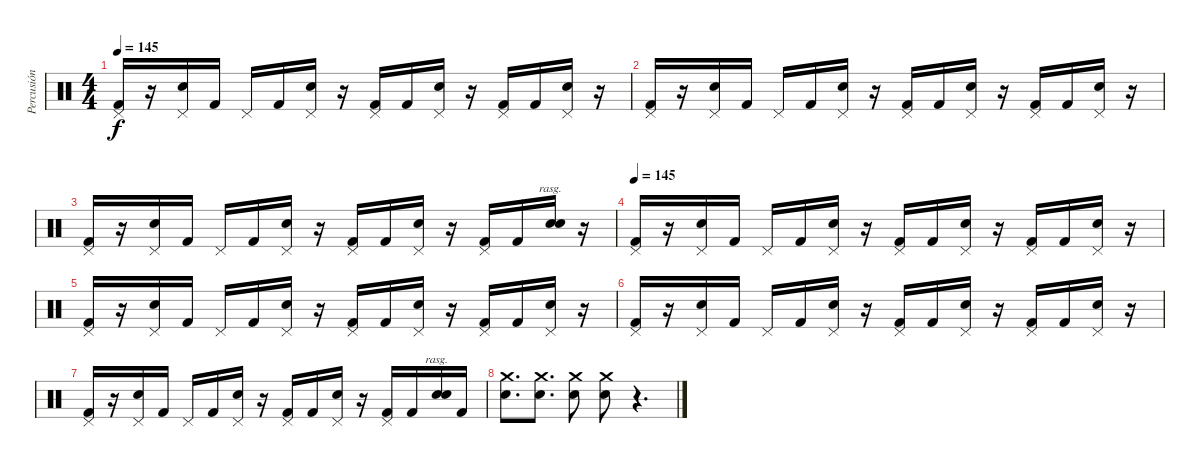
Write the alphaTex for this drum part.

\track ("Percusión" "Percusión") {instrument percussion}
\staff {score}
\articulation defaults
\ts (4 4)
\tempo 145
\clef neutral
\ks c
("Pedal Hi-Hat (hit)" "Kick (hit) 2").16{dy f} r.16 ("Pedal Hi-Hat (hit)" "Electric Snare (hit)").16 "Kick (hit) 2".16 "Pedal Hi-Hat (hit)".16 "Kick (hit) 2".16 ("Pedal Hi-Hat (hit)" "Electric Snare (hit)").16 r.16 ("Pedal Hi-Hat (hit)" "Kick (hit) 2").16 "Kick (hit) 2".16 ("Pedal Hi-Hat (hit)" "Electric Snare (hit)").16 r.16 ("Pedal Hi-Hat (hit)" "Kick (hit) 2").16 "Kick (hit) 2".16 ("Pedal Hi-Hat (hit)" "Electric Snare (hit)").16 r.16 |
("Pedal Hi-Hat (hit)" "Kick (hit) 2").16 r.16 ("Pedal Hi-Hat (hit)" "Electric Snare (hit)").16 "Kick (hit) 2".16 "Pedal Hi-Hat (hit)".16 "Kick (hit) 2".16 ("Pedal Hi-Hat (hit)" "Electric Snare (hit)").16 r.16 ("Pedal Hi-Hat (hit)" "Kick (hit) 2").16 "Kick (hit) 2".16 ("Pedal Hi-Hat (hit)" "Electric Snare (hit)").16 r.16 ("Pedal Hi-Hat (hit)" "Kick (hit) 2").16 "Kick (hit) 2".16 ("Pedal Hi-Hat (hit)" "Electric Snare (hit)").16 r.16 |
("Pedal Hi-Hat (hit)" "Kick (hit) 2").16 r.16 ("Pedal Hi-Hat (hit)" "Electric Snare (hit)").16 "Kick (hit) 2".16 "Pedal Hi-Hat (hit)".16 "Kick (hit) 2".16 ("Pedal Hi-Hat (hit)" "Electric Snare (hit)").16 r.16 ("Pedal Hi-Hat (hit)" "Kick (hit) 2").16 "Kick (hit) 2".16 ("Pedal Hi-Hat (hit)" "Electric Snare (hit)").16 r.16 ("Pedal Hi-Hat (hit)" "Kick (hit) 2").16 "Kick (hit) 2".16 ("Electric Snare (hit)" "Electric Snare (hit)").16{bd 60 rasg ii} r.16 |
\tempo 145
("Pedal Hi-Hat (hit)" "Kick (hit) 2").16 r.16 ("Pedal Hi-Hat (hit)" "Electric Snare (hit)").16 "Kick (hit) 2".16 "Pedal Hi-Hat (hit)".16 "Kick (hit) 2".16 ("Pedal Hi-Hat (hit)" "Electric Snare (hit)").16 r.16 ("Pedal Hi-Hat (hit)" "Kick (hit) 2").16 "Kick (hit) 2".16 ("Pedal Hi-Hat (hit)" "Electric Snare (hit)").16 r.16 ("Pedal Hi-Hat (hit)" "Kick (hit) 2").16 "Kick (hit) 2".16 ("Pedal Hi-Hat (hit)" "Electric Snare (hit)").16 r.16 |
("Pedal Hi-Hat (hit)" "Kick (hit) 2").16 r.16 ("Pedal Hi-Hat (hit)" "Electric Snare (hit)").16 "Kick (hit) 2".16 "Pedal Hi-Hat (hit)".16 "Kick (hit) 2".16 ("Pedal Hi-Hat (hit)" "Electric Snare (hit)").16 r.16 ("Pedal Hi-Hat (hit)" "Kick (hit) 2").16 "Kick (hit) 2".16 ("Pedal Hi-Hat (hit)" "Electric Snare (hit)").16 r.16 ("Pedal Hi-Hat (hit)" "Kick (hit) 2").16 "Kick (hit) 2".16 ("Pedal Hi-Hat (hit)" "Electric Snare (hit)").16 r.16 |
("Pedal Hi-Hat (hit)" "Kick (hit) 2").16 r.16 ("Pedal Hi-Hat (hit)" "Electric Snare (hit)").16 "Kick (hit) 2".16 "Pedal Hi-Hat (hit)".16 "Kick (hit) 2".16 ("Pedal Hi-Hat (hit)" "Electric Snare (hit)").16 r.16 ("Pedal Hi-Hat (hit)" "Kick (hit) 2").16 "Kick (hit) 2".16 ("Pedal Hi-Hat (hit)" "Electric Snare (hit)").16 r.16 ("Pedal Hi-Hat (hit)" "Kick (hit) 2").16 "Kick (hit) 2".16 ("Pedal Hi-Hat (hit)" "Electric Snare (hit)").16 r.16 |
("Pedal Hi-Hat (hit)" "Kick (hit) 2").16 r.16 ("Pedal Hi-Hat (hit)" "Electric Snare (hit)").16 "Kick (hit) 2".16 "Pedal Hi-Hat (hit)".16 "Kick (hit) 2".16 ("Pedal Hi-Hat (hit)" "Electric Snare (hit)").16 r.16 ("Pedal Hi-Hat (hit)" "Kick (hit) 2").16 "Kick (hit) 2".16 ("Pedal Hi-Hat (hit)" "Electric Snare (hit)").16 r.16 ("Pedal Hi-Hat (hit)" "Kick (hit) 2").16 "Kick (hit) 2".16 ("Electric Snare (hit)" "Electric Snare (hit)").16{bd 60 rasg ii} "Kick (hit) 2".16 |
("Crash medium (hit)" "Electric Snare (hit)").8{d} ("Crash medium (hit)" "Electric Snare (hit)").8{d} ("Crash medium (hit)" "Electric Snare (hit)").8 ("Crash medium (hit)" "Electric Snare (hit)").8 r.4{d}
